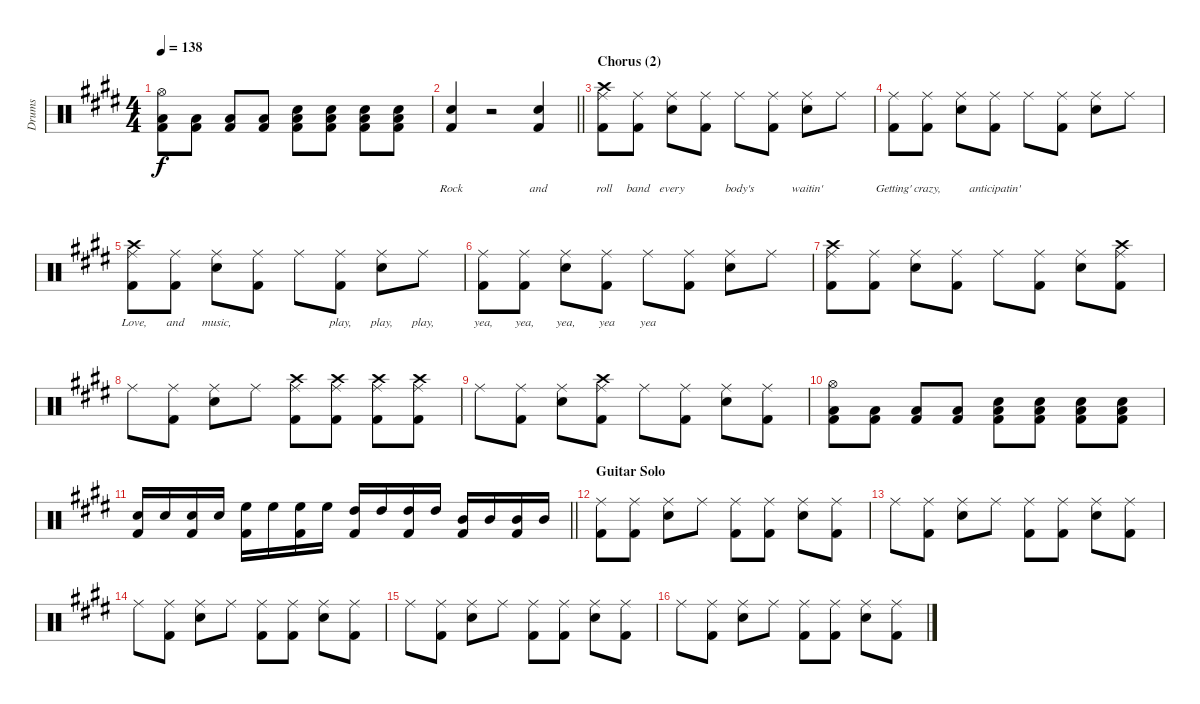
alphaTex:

\track ("Drums" "Drums") {instrument percussion}
\staff {score}
\articulation defaults
\ts (4 4)
\tempo 138
\clef neutral
\ks e
("Hi-Hat (open)" "Low Floor Tom (hit)" "Kick (hit) 2").8{dy f} ("Low Floor Tom (hit)" "Kick (hit) 2").8 ("Low Floor Tom (hit)" "Kick (hit) 2").8 ("Low Floor Tom (hit)" "Kick (hit) 2").8 ("Low Floor Tom (hit)" "Kick (hit) 2" "Snare (hit) 2").8 ("Low Floor Tom (hit)" "Kick (hit) 2" "Snare (hit) 2").8 ("Low Floor Tom (hit)" "Kick (hit) 2" "Snare (hit) 2").8 ("Low Floor Tom (hit)" "Kick (hit) 2" "Snare (hit) 2").8 |
\barLineRight lightlight
("Snare (hit) 2" "Kick (hit) 2").4{lyrics (0 "") lyrics (1 "Rock") lyrics (2 "") lyrics (3 "") lyrics (4 "")} r.2 ("Snare (hit) 2" "Kick (hit) 2").4{lyrics (0 "") lyrics (1 "and") lyrics (2 "") lyrics (3 "") lyrics (4 "")} |
\section ("" "Chorus (2)")
("Crash high (hit)" "Kick (hit) 2" "Ride (middle)").8{lyrics (0 "") lyrics (1 "roll") lyrics (2 "") lyrics (3 "") lyrics (4 "")} ("Kick (hit) 2" "Ride (middle)").8{lyrics (0 "") lyrics (1 "band") lyrics (2 "") lyrics (3 "") lyrics (4 "")} ("Snare (hit) 2" "Ride (middle)").8{lyrics (0 "") lyrics (1 "every") lyrics (2 "") lyrics (3 "") lyrics (4 "")} ("Kick (hit) 2" "Ride (middle)").8{lyrics (0 "") lyrics (1 "") lyrics (2 "") lyrics (3 "") lyrics (4 "")} "Ride (middle)".8{lyrics (0 "") lyrics (1 "body's") lyrics (2 "") lyrics (3 "") lyrics (4 "")} ("Kick (hit) 2" "Ride (middle)").8{lyrics (0 "") lyrics (1 "") lyrics (2 "") lyrics (3 "") lyrics (4 "")} ("Snare (hit) 2" "Ride (middle)").8{lyrics (0 "") lyrics (1 "waitin'") lyrics (2 "") lyrics (3 "") lyrics (4 "")} "Ride (middle)".8{lyrics (0 "") lyrics (1 "") lyrics (2 "") lyrics (3 "") lyrics (4 "")} |
("Kick (hit) 2" "Ride (middle)").8{lyrics (0 "") lyrics (1 "Getting'") lyrics (2 "") lyrics (3 "") lyrics (4 "")} ("Kick (hit) 2" "Ride (middle)").8{lyrics (0 "") lyrics (1 "crazy,") lyrics (2 "") lyrics (3 "") lyrics (4 "")} ("Snare (hit) 2" "Ride (middle)").8{lyrics (0 "") lyrics (1 "") lyrics (2 "") lyrics (3 "") lyrics (4 "")} ("Kick (hit) 2" "Ride (middle)").8{lyrics (0 "") lyrics (1 "anticipatin'") lyrics (2 "") lyrics (3 "") lyrics (4 "")} "Ride (middle)".8{lyrics (0 "") lyrics (1 "") lyrics (2 "") lyrics (3 "") lyrics (4 "")} ("Kick (hit) 2" "Ride (middle)").8{lyrics (0 "") lyrics (1 "") lyrics (2 "") lyrics (3 "") lyrics (4 "")} ("Snare (hit) 2" "Ride (middle)").8{lyrics (0 "") lyrics (1 "") lyrics (2 "") lyrics (3 "") lyrics (4 "")} "Ride (middle)".8{lyrics (0 "") lyrics (1 "") lyrics (2 "") lyrics (3 "") lyrics (4 "")} |
("Crash high (hit)" "Kick (hit) 2" "Ride (middle)").8{lyrics (0 "") lyrics (1 "Love,") lyrics (2 "") lyrics (3 "") lyrics (4 "")} ("Kick (hit) 2" "Ride (middle)").8{lyrics (0 "") lyrics (1 "and") lyrics (2 "") lyrics (3 "") lyrics (4 "")} ("Snare (hit) 2" "Ride (middle)").8{lyrics (0 "") lyrics (1 "music,") lyrics (2 "") lyrics (3 "") lyrics (4 "")} ("Kick (hit) 2" "Ride (middle)").8{lyrics (0 "") lyrics (1 "") lyrics (2 "") lyrics (3 "") lyrics (4 "")} "Ride (middle)".8{lyrics (0 "") lyrics (1 "") lyrics (2 "") lyrics (3 "") lyrics (4 "")} ("Kick (hit) 2" "Ride (middle)").8{lyrics (0 "") lyrics (1 "play,") lyrics (2 "") lyrics (3 "") lyrics (4 "")} ("Snare (hit) 2" "Ride (middle)").8{lyrics (0 "") lyrics (1 "play,") lyrics (2 "") lyrics (3 "") lyrics (4 "")} "Ride (middle)".8{lyrics (0 "") lyrics (1 "play,") lyrics (2 "") lyrics (3 "") lyrics (4 "")} |
("Kick (hit) 2" "Ride (middle)").8{lyrics (0 "") lyrics (1 "yea,") lyrics (2 "") lyrics (3 "") lyrics (4 "")} ("Kick (hit) 2" "Ride (middle)").8{lyrics (0 "") lyrics (1 "yea,") lyrics (2 "") lyrics (3 "") lyrics (4 "")} ("Snare (hit) 2" "Ride (middle)").8{lyrics (0 "") lyrics (1 "yea,") lyrics (2 "") lyrics (3 "") lyrics (4 "")} ("Kick (hit) 2" "Ride (middle)").8{lyrics (0 "") lyrics (1 "yea") lyrics (2 "") lyrics (3 "") lyrics (4 "")} "Ride (middle)".8{lyrics (0 "") lyrics (1 "yea") lyrics (2 "") lyrics (3 "") lyrics (4 "")} ("Kick (hit) 2" "Ride (middle)").8 ("Snare (hit) 2" "Ride (middle)").8 "Ride (middle)".8 |
("Crash high (hit)" "Kick (hit) 2" "Ride (middle)").8 ("Kick (hit) 2" "Ride (middle)").8 ("Snare (hit) 2" "Ride (middle)").8 ("Kick (hit) 2" "Ride (middle)").8 "Ride (middle)".8 ("Kick (hit) 2" "Ride (middle)").8 ("Snare (hit) 2" "Ride (middle)").8 ("Crash high (hit)" "Kick (hit) 2" "Ride (middle)").8 |
"Ride (middle)".8 ("Kick (hit) 2" "Ride (middle)").8 ("Snare (hit) 2" "Ride (middle)").8 "Ride (middle)".8 ("Crash high (hit)" "Kick (hit) 2" "Ride (middle)").8 ("Crash high (hit)" "Kick (hit) 2" "Ride (middle)").8 ("Crash high (hit)" "Kick (hit) 2" "Ride (middle)").8 ("Crash high (hit)" "Kick (hit) 2" "Ride (middle)").8 |
"Ride (middle)".8 ("Kick (hit) 2" "Ride (middle)").8 ("Snare (hit) 2" "Ride (middle)").8 ("Crash high (hit)" "Kick (hit) 2" "Ride (middle)").8 "Ride (middle)".8 ("Kick (hit) 2" "Ride (middle)").8 ("Snare (hit) 2" "Ride (middle)").8 ("Kick (hit) 2" "Ride (middle)").8 |
("Hi-Hat (open)" "Low Floor Tom (hit)" "Kick (hit) 2").8 ("Low Floor Tom (hit)" "Kick (hit) 2").8 ("Low Floor Tom (hit)" "Kick (hit) 2").8 ("Low Floor Tom (hit)" "Kick (hit) 2").8 ("Low Floor Tom (hit)" "Kick (hit) 2" "Snare (hit) 2").8 ("Low Floor Tom (hit)" "Kick (hit) 2" "Snare (hit) 2").8 ("Low Floor Tom (hit)" "Kick (hit) 2" "Snare (hit) 2").8 ("Low Floor Tom (hit)" "Kick (hit) 2" "Snare (hit) 2").8 |
\barLineRight lightlight
("Kick (hit) 2" "Snare (hit) 2").16 "Snare (hit) 2".16 ("Kick (hit) 2" "Snare (hit) 2").16 "Snare (hit) 2".16 ("Kick (hit) 2" "High Floor Tom (hit)").16 "High Floor Tom (hit)".16 ("Kick (hit) 2" "High Floor Tom (hit)").16 "High Floor Tom (hit)".16 ("Kick (hit) 2" "High Tom (hit)").16 "High Tom (hit)".16 ("Kick (hit) 2" "High Tom (hit)").16 "High Tom (hit)".16 ("Kick (hit) 2" "Mid Tom (hit)").16 "Mid Tom (hit)".16 ("Kick (hit) 2" "Mid Tom (hit)").16 "Mid Tom (hit)".16 |
\section ("" "Guitar Solo")
("Kick (hit) 2" "Ride (middle)").8 ("Kick (hit) 2" "Ride (middle)").8 ("Snare (hit) 2" "Ride (middle)").8 "Ride (middle)".8 ("Kick (hit) 2" "Ride (middle)").8 ("Kick (hit) 2" "Ride (middle)").8 ("Snare (hit) 2" "Ride (middle)").8 ("Kick (hit) 2" "Ride (middle)").8 |
"Ride (middle)".8 ("Kick (hit) 2" "Ride (middle)").8 ("Snare (hit) 2" "Ride (middle)").8 "Ride (middle)".8 ("Kick (hit) 2" "Ride (middle)").8 ("Kick (hit) 2" "Ride (middle)").8 ("Snare (hit) 2" "Ride (middle)").8 ("Kick (hit) 2" "Ride (middle)").8 |
"Ride (middle)".8 ("Kick (hit) 2" "Ride (middle)").8 ("Snare (hit) 2" "Ride (middle)").8 "Ride (middle)".8 ("Kick (hit) 2" "Ride (middle)").8 ("Kick (hit) 2" "Ride (middle)").8 ("Snare (hit) 2" "Ride (middle)").8 ("Kick (hit) 2" "Ride (middle)").8 |
"Ride (middle)".8 ("Kick (hit) 2" "Ride (middle)").8 ("Snare (hit) 2" "Ride (middle)").8 "Ride (middle)".8 ("Kick (hit) 2" "Ride (middle)").8 ("Kick (hit) 2" "Ride (middle)").8 ("Snare (hit) 2" "Ride (middle)").8 ("Kick (hit) 2" "Ride (middle)").8 |
"Ride (middle)".8 ("Kick (hit) 2" "Ride (middle)").8 ("Snare (hit) 2" "Ride (middle)").8 "Ride (middle)".8 ("Kick (hit) 2" "Ride (middle)").8 ("Kick (hit) 2" "Ride (middle)").8 ("Snare (hit) 2" "Ride (middle)").8 ("Kick (hit) 2" "Ride (middle)").8
